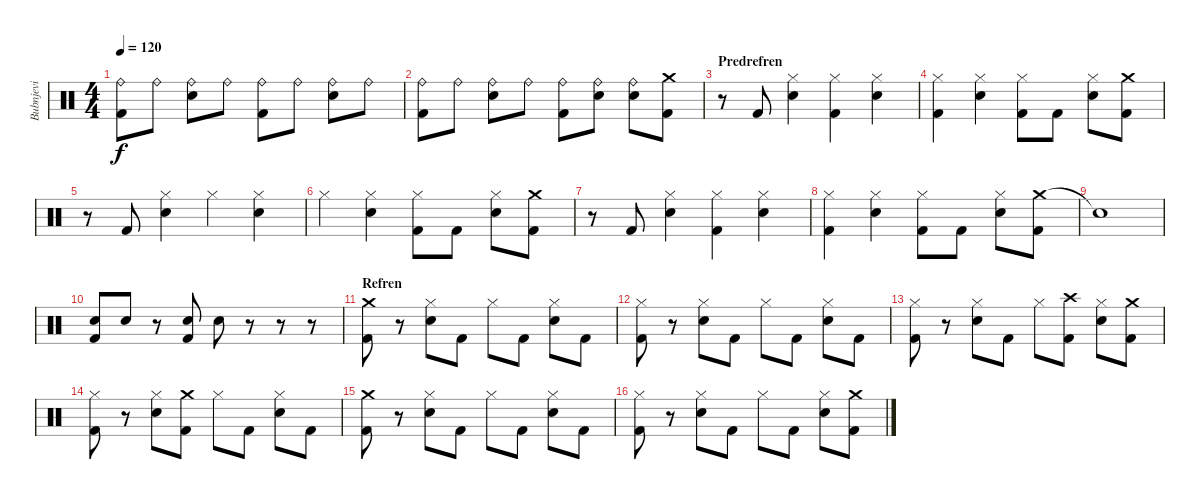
\track ("Bubnjevi" "Bubnjevi") {instrument percussion}
\staff {score}
\articulation defaults
\ts (4 4)
\tempo 120
\clef neutral
\ks c
("Ride (bell)" "Kick (hit) 2").8{dy f} "Ride (bell)".8 ("Ride (bell)" "Electric Snare (hit)").8 "Ride (bell)".8 ("Ride (bell)" "Kick (hit) 2").8 "Ride (bell)".8 ("Ride (bell)" "Electric Snare (hit)").8 "Ride (bell)".8 |
("Ride (bell)" "Kick (hit) 2").8 "Ride (bell)".8 ("Ride (bell)" "Electric Snare (hit)").8 "Ride (bell)".8 ("Ride (bell)" "Kick (hit) 2").8 ("Ride (bell)" "Electric Snare (hit)").8 ("Ride (bell)" "Electric Snare (hit)").8 ("Crash medium (hit)" "Kick (hit) 2").8 |
\section ("" "Predrefren")
r.8 "Kick (hit) 2".8 ("Electric Snare (hit)" "Hi-Hat (closed)").4 ("Hi-Hat (closed)" "Kick (hit) 2").4 ("Electric Snare (hit)" "Hi-Hat (closed)").4 |
("Hi-Hat (closed)" "Kick (hit) 2").4 ("Electric Snare (hit)" "Hi-Hat (closed)").4 ("Hi-Hat (closed)" "Kick (hit) 2").8 "Kick (hit) 2".8 ("Electric Snare (hit)" "Hi-Hat (closed)").8 ("Crash medium (hit)" "Kick (hit) 2").8 |
r.8 "Kick (hit) 2".8 ("Electric Snare (hit)" "Hi-Hat (closed)").4 "Hi-Hat (closed)".4 ("Electric Snare (hit)" "Hi-Hat (closed)").4 |
"Hi-Hat (closed)".4 ("Electric Snare (hit)" "Hi-Hat (closed)").4 ("Hi-Hat (closed)" "Kick (hit) 2").8 "Kick (hit) 2".8 ("Electric Snare (hit)" "Hi-Hat (closed)").8 ("Crash medium (hit)" "Kick (hit) 2").8 |
r.8 "Kick (hit) 2".8 ("Electric Snare (hit)" "Hi-Hat (closed)").4 ("Hi-Hat (closed)" "Kick (hit) 2").4 ("Electric Snare (hit)" "Hi-Hat (closed)").4 |
("Hi-Hat (closed)" "Kick (hit) 2").4 ("Electric Snare (hit)" "Hi-Hat (closed)").4 ("Hi-Hat (closed)" "Kick (hit) 2").8 "Kick (hit) 2".8 ("Electric Snare (hit)" "Hi-Hat (closed)").8 ("Crash medium (hit)" "Kick (hit) 2").8 |
"Snare (hit)"{t}.1 |
("Electric Snare (hit)" "Kick (hit) 2").8 "Electric Snare (hit)".8 r.8 ("Electric Snare (hit)" "Kick (hit) 2").8 "Electric Snare (hit)".8 r.8 r.8 r.8 |
\section ("" "Refren")
("Crash medium (hit)" "Kick (hit) 2").8 r.8 ("Electric Snare (hit)" "Hi-Hat (closed)").8 "Kick (hit) 2".8 "Hi-Hat (closed)".8 "Kick (hit) 2".8 ("Electric Snare (hit)" "Hi-Hat (closed)").8 "Kick (hit) 2".8 |
("Hi-Hat (closed)" "Kick (hit) 2").8 r.8 ("Electric Snare (hit)" "Hi-Hat (closed)").8 "Kick (hit) 2".8 "Hi-Hat (closed)".8 "Kick (hit) 2".8 ("Electric Snare (hit)" "Hi-Hat (closed)").8 "Kick (hit) 2".8 |
("Hi-Hat (closed)" "Kick (hit) 2").8 r.8 ("Electric Snare (hit)" "Hi-Hat (closed)").8 "Kick (hit) 2".8 "Hi-Hat (closed)".8 ("Crash high (hit)" "Kick (hit) 2").8 ("Electric Snare (hit)" "Hi-Hat (closed)").8 ("Crash medium (hit)" "Kick (hit) 2").8 |
("Hi-Hat (closed)" "Kick (hit) 2").8 r.8 ("Electric Snare (hit)" "Hi-Hat (closed)").8 ("Crash medium (hit)" "Kick (hit) 2").8 "Hi-Hat (closed)".8 "Kick (hit) 2".8 ("Electric Snare (hit)" "Hi-Hat (closed)").8 "Kick (hit) 2".8 |
("Crash medium (hit)" "Kick (hit) 2").8 r.8 ("Electric Snare (hit)" "Hi-Hat (closed)").8 "Kick (hit) 2".8 "Hi-Hat (closed)".8 "Kick (hit) 2".8 ("Electric Snare (hit)" "Hi-Hat (closed)").8 "Kick (hit) 2".8 |
("Hi-Hat (closed)" "Kick (hit) 2").8 r.8 ("Electric Snare (hit)" "Hi-Hat (closed)").8 "Kick (hit) 2".8 "Hi-Hat (closed)".8 "Kick (hit) 2".8 ("Electric Snare (hit)" "Hi-Hat (closed)").8 ("Crash medium (hit)" "Kick (hit) 2").8
